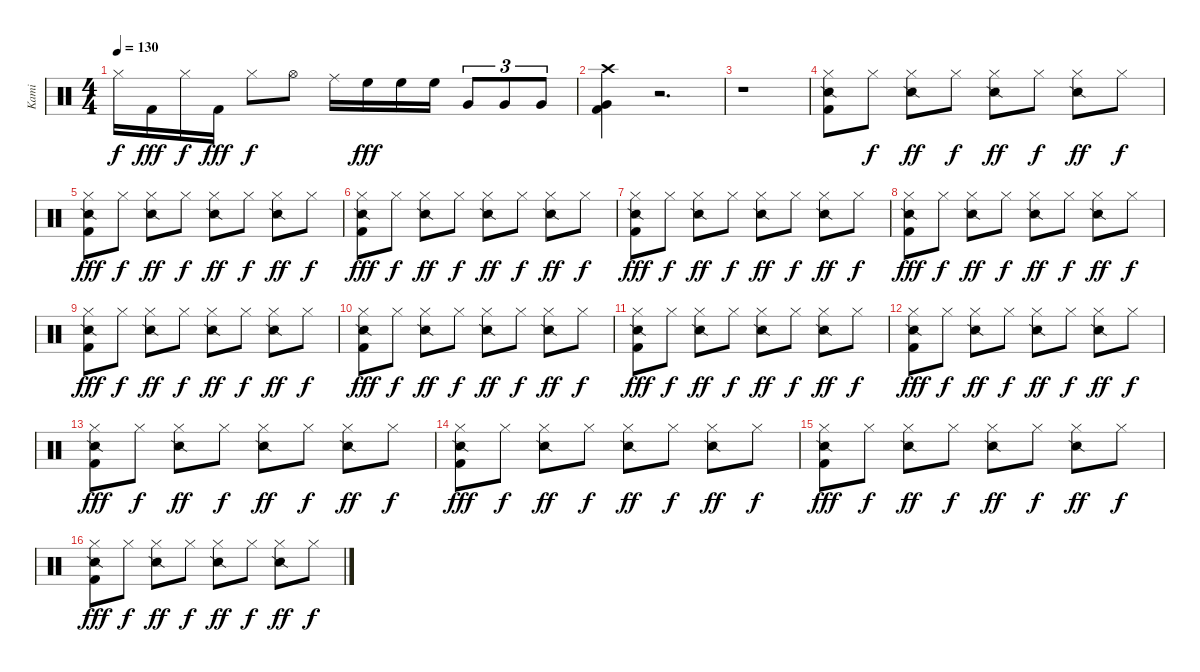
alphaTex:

\track ("Kami" "Kami") {instrument percussion}
\staff {score}
\articulation defaults
\ts (4 4)
\tempo 130
\clef neutral
\ks c "Hi-Hat (closed)".16{dy f} "Kick (hit) 2".16{dy fff} "Hi-Hat (closed)".16{dy f} "Kick (hit) 2".16{dy fff} "Hi-Hat (closed)".8{dy f} "Hi-Hat (open)".8 "Ride (middle)".16 "High Floor Tom (hit)".16{dy fff} "High Floor Tom (hit)".16 "High Floor Tom (hit)".16 "Very Low Tom (hit)".8{tu (3 2)} "Very Low Tom (hit)".8{tu (3 2)} "Very Low Tom (hit)".8{tu (3 2)}
|
("Kick (hit) 2" "Crash high (hit)" "Very Low Tom (hit)").4 r.2{d} |
r.1 |
("Hi-Hat (closed)" "Snare (side stick) 2" "Kick (hit) 2").8 "Hi-Hat (closed)".8{dy f} ("Hi-Hat (closed)" "Snare (side stick) 2").8{dy ff} "Hi-Hat (closed)".8{dy f} ("Hi-Hat (closed)" "Snare (side stick) 2").8{dy ff} "Hi-Hat (closed)".8{dy f} ("Hi-Hat (closed)" "Snare (side stick) 2").8{dy ff} "Hi-Hat (closed)".8{dy f} |
("Hi-Hat (closed)" "Snare (side stick) 2" "Kick (hit) 2").8{dy fff} "Hi-Hat (closed)".8{dy f} ("Hi-Hat (closed)" "Snare (side stick) 2").8{dy ff} "Hi-Hat (closed)".8{dy f} ("Hi-Hat (closed)" "Snare (side stick) 2").8{dy ff} "Hi-Hat (closed)".8{dy f} ("Hi-Hat (closed)" "Snare (side stick) 2").8{dy ff} "Hi-Hat (closed)".8{dy f} |
("Hi-Hat (closed)" "Snare (side stick) 2" "Kick (hit) 2").8{dy fff} "Hi-Hat (closed)".8{dy f} ("Hi-Hat (closed)" "Snare (side stick) 2").8{dy ff} "Hi-Hat (closed)".8{dy f} ("Hi-Hat (closed)" "Snare (side stick) 2").8{dy ff} "Hi-Hat (closed)".8{dy f} ("Hi-Hat (closed)" "Snare (side stick) 2").8{dy ff} "Hi-Hat (closed)".8{dy f} |
("Hi-Hat (closed)" "Snare (side stick) 2" "Kick (hit) 2").8{dy fff} "Hi-Hat (closed)".8{dy f} ("Hi-Hat (closed)" "Snare (side stick) 2").8{dy ff} "Hi-Hat (closed)".8{dy f} ("Hi-Hat (closed)" "Snare (side stick) 2").8{dy ff} "Hi-Hat (closed)".8{dy f} ("Hi-Hat (closed)" "Snare (side stick) 2").8{dy ff} "Hi-Hat (closed)".8{dy f} |
("Hi-Hat (closed)" "Snare (side stick) 2" "Kick (hit) 2").8{dy fff} "Hi-Hat (closed)".8{dy f} ("Hi-Hat (closed)" "Snare (side stick) 2").8{dy ff} "Hi-Hat (closed)".8{dy f} ("Hi-Hat (closed)" "Snare (side stick) 2").8{dy ff} "Hi-Hat (closed)".8{dy f} ("Hi-Hat (closed)" "Snare (side stick) 2").8{dy ff} "Hi-Hat (closed)".8{dy f} |
("Hi-Hat (closed)" "Snare (side stick) 2" "Kick (hit) 2").8{dy fff} "Hi-Hat (closed)".8{dy f} ("Hi-Hat (closed)" "Snare (side stick) 2").8{dy ff} "Hi-Hat (closed)".8{dy f} ("Hi-Hat (closed)" "Snare (side stick) 2").8{dy ff} "Hi-Hat (closed)".8{dy f} ("Hi-Hat (closed)" "Snare (side stick) 2").8{dy ff} "Hi-Hat (closed)".8{dy f} |
("Hi-Hat (closed)" "Snare (side stick) 2" "Kick (hit) 2").8{dy fff} "Hi-Hat (closed)".8{dy f} ("Hi-Hat (closed)" "Snare (side stick) 2").8{dy ff} "Hi-Hat (closed)".8{dy f} ("Hi-Hat (closed)" "Snare (side stick) 2").8{dy ff} "Hi-Hat (closed)".8{dy f} ("Hi-Hat (closed)" "Snare (side stick) 2").8{dy ff} "Hi-Hat (closed)".8{dy f} |
("Hi-Hat (closed)" "Snare (side stick) 2" "Kick (hit) 2").8{dy fff} "Hi-Hat (closed)".8{dy f} ("Hi-Hat (closed)" "Snare (side stick) 2").8{dy ff} "Hi-Hat (closed)".8{dy f} ("Hi-Hat (closed)" "Snare (side stick) 2").8{dy ff} "Hi-Hat (closed)".8{dy f} ("Hi-Hat (closed)" "Snare (side stick) 2").8{dy ff} "Hi-Hat (closed)".8{dy f} |
("Hi-Hat (closed)" "Snare (side stick) 2" "Kick (hit) 2").8{dy fff} "Hi-Hat (closed)".8{dy f} ("Hi-Hat (closed)" "Snare (side stick) 2").8{dy ff} "Hi-Hat (closed)".8{dy f} ("Hi-Hat (closed)" "Snare (side stick) 2").8{dy ff} "Hi-Hat (closed)".8{dy f} ("Hi-Hat (closed)" "Snare (side stick) 2").8{dy ff} "Hi-Hat (closed)".8{dy f} |
("Hi-Hat (closed)" "Snare (side stick) 2" "Kick (hit) 2").8{dy fff} "Hi-Hat (closed)".8{dy f} ("Hi-Hat (closed)" "Snare (side stick) 2").8{dy ff} "Hi-Hat (closed)".8{dy f} ("Hi-Hat (closed)" "Snare (side stick) 2").8{dy ff} "Hi-Hat (closed)".8{dy f} ("Hi-Hat (closed)" "Snare (side stick) 2").8{dy ff} "Hi-Hat (closed)".8{dy f} |
("Hi-Hat (closed)" "Snare (side stick) 2" "Kick (hit) 2").8{dy fff} "Hi-Hat (closed)".8{dy f} ("Hi-Hat (closed)" "Snare (side stick) 2").8{dy ff} "Hi-Hat (closed)".8{dy f} ("Hi-Hat (closed)" "Snare (side stick) 2").8{dy ff} "Hi-Hat (closed)".8{dy f} ("Hi-Hat (closed)" "Snare (side stick) 2").8{dy ff} "Hi-Hat (closed)".8{dy f} |
("Hi-Hat (closed)" "Snare (side stick) 2" "Kick (hit) 2").8{dy fff} "Hi-Hat (closed)".8{dy f} ("Hi-Hat (closed)" "Snare (side stick) 2").8{dy ff} "Hi-Hat (closed)".8{dy f} ("Hi-Hat (closed)" "Snare (side stick) 2").8{dy ff} "Hi-Hat (closed)".8{dy f} ("Hi-Hat (closed)" "Snare (side stick) 2").8{dy ff} "Hi-Hat (closed)".8{dy f} |
("Hi-Hat (closed)" "Snare (side stick) 2" "Kick (hit) 2").8{dy fff} "Hi-Hat (closed)".8{dy f} ("Hi-Hat (closed)" "Snare (side stick) 2").8{dy ff} "Hi-Hat (closed)".8{dy f} ("Hi-Hat (closed)" "Snare (side stick) 2").8{dy ff} "Hi-Hat (closed)".8{dy f} ("Hi-Hat (closed)" "Snare (side stick) 2").8{dy ff} "Hi-Hat (closed)".8{dy f}
